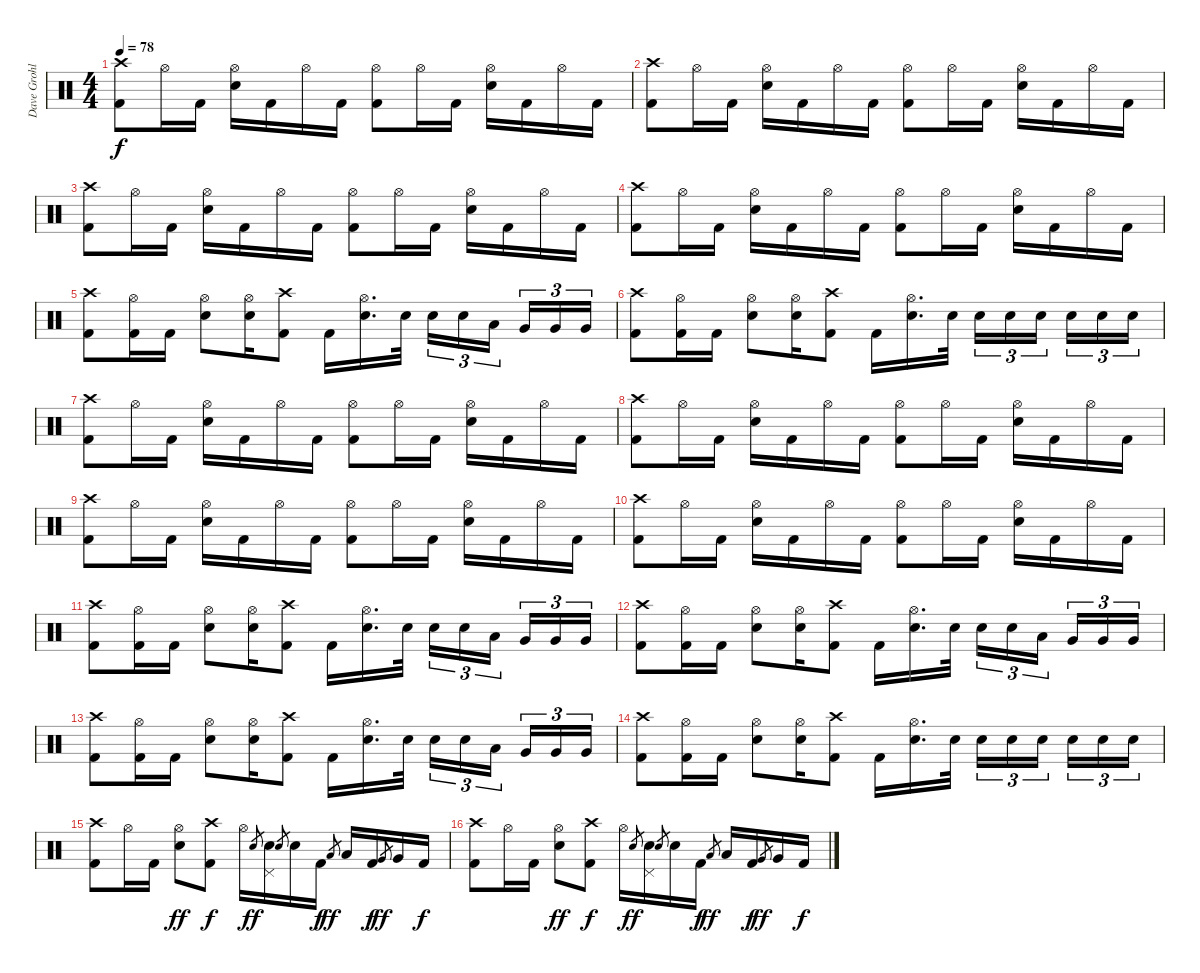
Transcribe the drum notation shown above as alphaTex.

\track ("Dave Grohl" "Dave Grohl") {instrument percussion}
\staff {score}
\articulation defaults
\ts (4 4)
\tempo 78
\clef neutral
\ks c
("Crash high (hit)" "Kick (hit) 2").8{dy f} "Hi-Hat (open)".16 "Kick (hit) 2".16 ("Hi-Hat (open)" "Snare (hit) 2").16 "Kick (hit) 2".16 "Hi-Hat (open)".16 "Kick (hit) 2".16 ("Hi-Hat (open)" "Kick (hit) 2").8 "Hi-Hat (open)".16 "Kick (hit) 2".16 ("Hi-Hat (open)" "Snare (hit) 2").16 "Kick (hit) 2".16 "Hi-Hat (open)".16 "Kick (hit) 2".16 |
("Crash high (hit)" "Kick (hit) 2").8 "Hi-Hat (open)".16 "Kick (hit) 2".16 ("Hi-Hat (open)" "Snare (hit) 2").16 "Kick (hit) 2".16 "Hi-Hat (open)".16 "Kick (hit) 2".16 ("Hi-Hat (open)" "Kick (hit) 2").8 "Hi-Hat (open)".16 "Kick (hit) 2".16 ("Hi-Hat (open)" "Snare (hit) 2").16 "Kick (hit) 2".16 "Hi-Hat (open)".16 "Kick (hit) 2".16 |
("Crash high (hit)" "Kick (hit) 2").8 "Hi-Hat (open)".16 "Kick (hit) 2".16 ("Hi-Hat (open)" "Snare (hit) 2").16 "Kick (hit) 2".16 "Hi-Hat (open)".16 "Kick (hit) 2".16 ("Hi-Hat (open)" "Kick (hit) 2").8 "Hi-Hat (open)".16 "Kick (hit) 2".16 ("Hi-Hat (open)" "Snare (hit) 2").16 "Kick (hit) 2".16 "Hi-Hat (open)".16 "Kick (hit) 2".16 |
("Crash high (hit)" "Kick (hit) 2").8 "Hi-Hat (open)".16 "Kick (hit) 2".16 ("Hi-Hat (open)" "Snare (hit) 2").16 "Kick (hit) 2".16 "Hi-Hat (open)".16 "Kick (hit) 2".16 ("Hi-Hat (open)" "Kick (hit) 2").8 "Hi-Hat (open)".16 "Kick (hit) 2".16 ("Hi-Hat (open)" "Snare (hit) 2").16 "Kick (hit) 2".16 "Hi-Hat (open)".16 "Kick (hit) 2".16 |
("Crash high (hit)" "Kick (hit) 2").8 ("Hi-Hat (open)" "Kick (hit) 2").16 "Kick (hit) 2".16 ("Hi-Hat (open)" "Snare (hit) 2").8 ("Hi-Hat (open)" "Snare (hit) 2").16 ("Crash high (hit)" "Kick (hit) 2").8 "Kick (hit) 2".16 ("Hi-Hat (open)" "Snare (hit) 2").16{d} "Snare (hit) 2".32 "Snare (hit) 2".16{tu (3 2)} "Snare (hit) 2".16{tu (3 2)} "Low Tom (hit)".16{tu (3 2) beam splitsecondary} "Very Low Tom (hit)".16{tu (3 2)} "Very Low Tom (hit)".16{tu (3 2)} "Very Low Tom (hit)".16{tu (3 2)} |
("Crash high (hit)" "Kick (hit) 2").8 ("Hi-Hat (open)" "Kick (hit) 2").16 "Kick (hit) 2".16 ("Hi-Hat (open)" "Snare (hit) 2").8 ("Hi-Hat (open)" "Snare (hit) 2").16 ("Crash high (hit)" "Kick (hit) 2").8 "Kick (hit) 2".16 ("Hi-Hat (open)" "Snare (hit) 2").16{d} "Snare (hit) 2".32 "Snare (hit) 2".16{tu (3 2)} "Snare (hit) 2".16{tu (3 2)} "Snare (hit) 2".16{tu (3 2) beam splitsecondary} "Snare (hit) 2".16{tu (3 2)} "Snare (hit) 2".16{tu (3 2)} "Snare (hit) 2".16{tu (3 2)} |
("Crash high (hit)" "Kick (hit) 2").8 "Hi-Hat (open)".16 "Kick (hit) 2".16 ("Hi-Hat (open)" "Snare (hit) 2").16 "Kick (hit) 2".16 "Hi-Hat (open)".16 "Kick (hit) 2".16 ("Hi-Hat (open)" "Kick (hit) 2").8 "Hi-Hat (open)".16 "Kick (hit) 2".16 ("Hi-Hat (open)" "Snare (hit) 2").16 "Kick (hit) 2".16 "Hi-Hat (open)".16 "Kick (hit) 2".16 |
("Crash high (hit)" "Kick (hit) 2").8 "Hi-Hat (open)".16 "Kick (hit) 2".16 ("Hi-Hat (open)" "Snare (hit) 2").16 "Kick (hit) 2".16 "Hi-Hat (open)".16 "Kick (hit) 2".16 ("Hi-Hat (open)" "Kick (hit) 2").8 "Hi-Hat (open)".16 "Kick (hit) 2".16 ("Hi-Hat (open)" "Snare (hit) 2").16 "Kick (hit) 2".16 "Hi-Hat (open)".16 "Kick (hit) 2".16 |
("Crash high (hit)" "Kick (hit) 2").8 "Hi-Hat (open)".16 "Kick (hit) 2".16 ("Hi-Hat (open)" "Snare (hit) 2").16 "Kick (hit) 2".16 "Hi-Hat (open)".16 "Kick (hit) 2".16 ("Hi-Hat (open)" "Kick (hit) 2").8 "Hi-Hat (open)".16 "Kick (hit) 2".16 ("Hi-Hat (open)" "Snare (hit) 2").16 "Kick (hit) 2".16 "Hi-Hat (open)".16 "Kick (hit) 2".16 |
("Crash high (hit)" "Kick (hit) 2").8 "Hi-Hat (open)".16 "Kick (hit) 2".16 ("Hi-Hat (open)" "Snare (hit) 2").16 "Kick (hit) 2".16 "Hi-Hat (open)".16 "Kick (hit) 2".16 ("Hi-Hat (open)" "Kick (hit) 2").8 "Hi-Hat (open)".16 "Kick (hit) 2".16 ("Hi-Hat (open)" "Snare (hit) 2").16 "Kick (hit) 2".16 "Hi-Hat (open)".16 "Kick (hit) 2".16 |
("Crash high (hit)" "Kick (hit) 2").8 ("Hi-Hat (open)" "Kick (hit) 2").16 "Kick (hit) 2".16 ("Hi-Hat (open)" "Snare (hit) 2").8 ("Hi-Hat (open)" "Snare (hit) 2").16 ("Crash high (hit)" "Kick (hit) 2").8 "Kick (hit) 2".16 ("Hi-Hat (open)" "Snare (hit) 2").16{d} "Snare (hit) 2".32 "Snare (hit) 2".16{tu (3 2)} "Snare (hit) 2".16{tu (3 2)} "Low Tom (hit)".16{tu (3 2) beam splitsecondary} "Very Low Tom (hit)".16{tu (3 2)} "Very Low Tom (hit)".16{tu (3 2)} "Very Low Tom (hit)".16{tu (3 2)} |
("Crash high (hit)" "Kick (hit) 2").8 ("Hi-Hat (open)" "Kick (hit) 2").16 "Kick (hit) 2".16 ("Hi-Hat (open)" "Snare (hit) 2").8 ("Hi-Hat (open)" "Snare (hit) 2").16 ("Crash high (hit)" "Kick (hit) 2").8 "Kick (hit) 2".16 ("Hi-Hat (open)" "Snare (hit) 2").16{d} "Snare (hit) 2".32 "Snare (hit) 2".16{tu (3 2)} "Snare (hit) 2".16{tu (3 2)} "Low Tom (hit)".16{tu (3 2) beam splitsecondary} "Very Low Tom (hit)".16{tu (3 2)} "Very Low Tom (hit)".16{tu (3 2)} "Very Low Tom (hit)".16{tu (3 2)} |
("Crash high (hit)" "Kick (hit) 2").8 ("Hi-Hat (open)" "Kick (hit) 2").16 "Kick (hit) 2".16 ("Hi-Hat (open)" "Snare (hit) 2").8 ("Hi-Hat (open)" "Snare (hit) 2").16 ("Crash high (hit)" "Kick (hit) 2").8 "Kick (hit) 2".16 ("Hi-Hat (open)" "Snare (hit) 2").16{d} "Snare (hit) 2".32 "Snare (hit) 2".16{tu (3 2)} "Snare (hit) 2".16{tu (3 2)} "Low Tom (hit)".16{tu (3 2) beam splitsecondary} "Very Low Tom (hit)".16{tu (3 2)} "Very Low Tom (hit)".16{tu (3 2)} "Very Low Tom (hit)".16{tu (3 2)} |
("Crash high (hit)" "Kick (hit) 2").8 ("Hi-Hat (open)" "Kick (hit) 2").16 "Kick (hit) 2".16 ("Hi-Hat (open)" "Snare (hit) 2").8 ("Hi-Hat (open)" "Snare (hit) 2").16 ("Crash high (hit)" "Kick (hit) 2").8 "Kick (hit) 2".16 ("Hi-Hat (open)" "Snare (hit) 2").16{d} "Snare (hit) 2".32 "Snare (hit) 2".16{tu (3 2)} "Snare (hit) 2".16{tu (3 2)} "Snare (hit) 2".16{tu (3 2) beam splitsecondary} "Snare (hit) 2".16{tu (3 2)} "Snare (hit) 2".16{tu (3 2)} "Snare (hit) 2".16{tu (3 2)} |
("Crash high (hit)" "Kick (hit) 2").8 "Hi-Hat (open)".16 "Kick (hit) 2".16 ("Hi-Hat (open)" "Snare (hit) 2").8{dy ff} ("Crash high (hit)" "Kick (hit) 2").8{dy f} "Hi-Hat (open)".16 "Snare (hit) 2".8{gr dy ff} ("Pedal Hi-Hat (hit)" "Snare (hit) 2").16 "Snare (hit) 2".8{gr} "Snare (hit) 2".16 "Kick (hit) 2".16{dy f} "Low Tom (hit)".8{gr dy ff} "Low Tom (hit)".16 "Kick (hit) 2".16{dy f} "Very Low Tom (hit)".8{gr dy ff} "Very Low Tom (hit)".16 "Kick (hit) 2".16{dy f} |
("Crash high (hit)" "Kick (hit) 2").8 "Hi-Hat (open)".16 "Kick (hit) 2".16 ("Hi-Hat (open)" "Snare (hit) 2").8{dy ff} ("Crash high (hit)" "Kick (hit) 2").8{dy f} "Hi-Hat (open)".16 "Snare (hit) 2".8{gr dy ff} ("Pedal Hi-Hat (hit)" "Snare (hit) 2").16 "Snare (hit) 2".8{gr} "Snare (hit) 2".16 "Kick (hit) 2".16{dy f} "Low Tom (hit)".8{gr dy ff} "Low Tom (hit)".16 "Kick (hit) 2".16{dy f} "Very Low Tom (hit)".8{gr dy ff} "Very Low Tom (hit)".16 "Kick (hit) 2".16{dy f}
